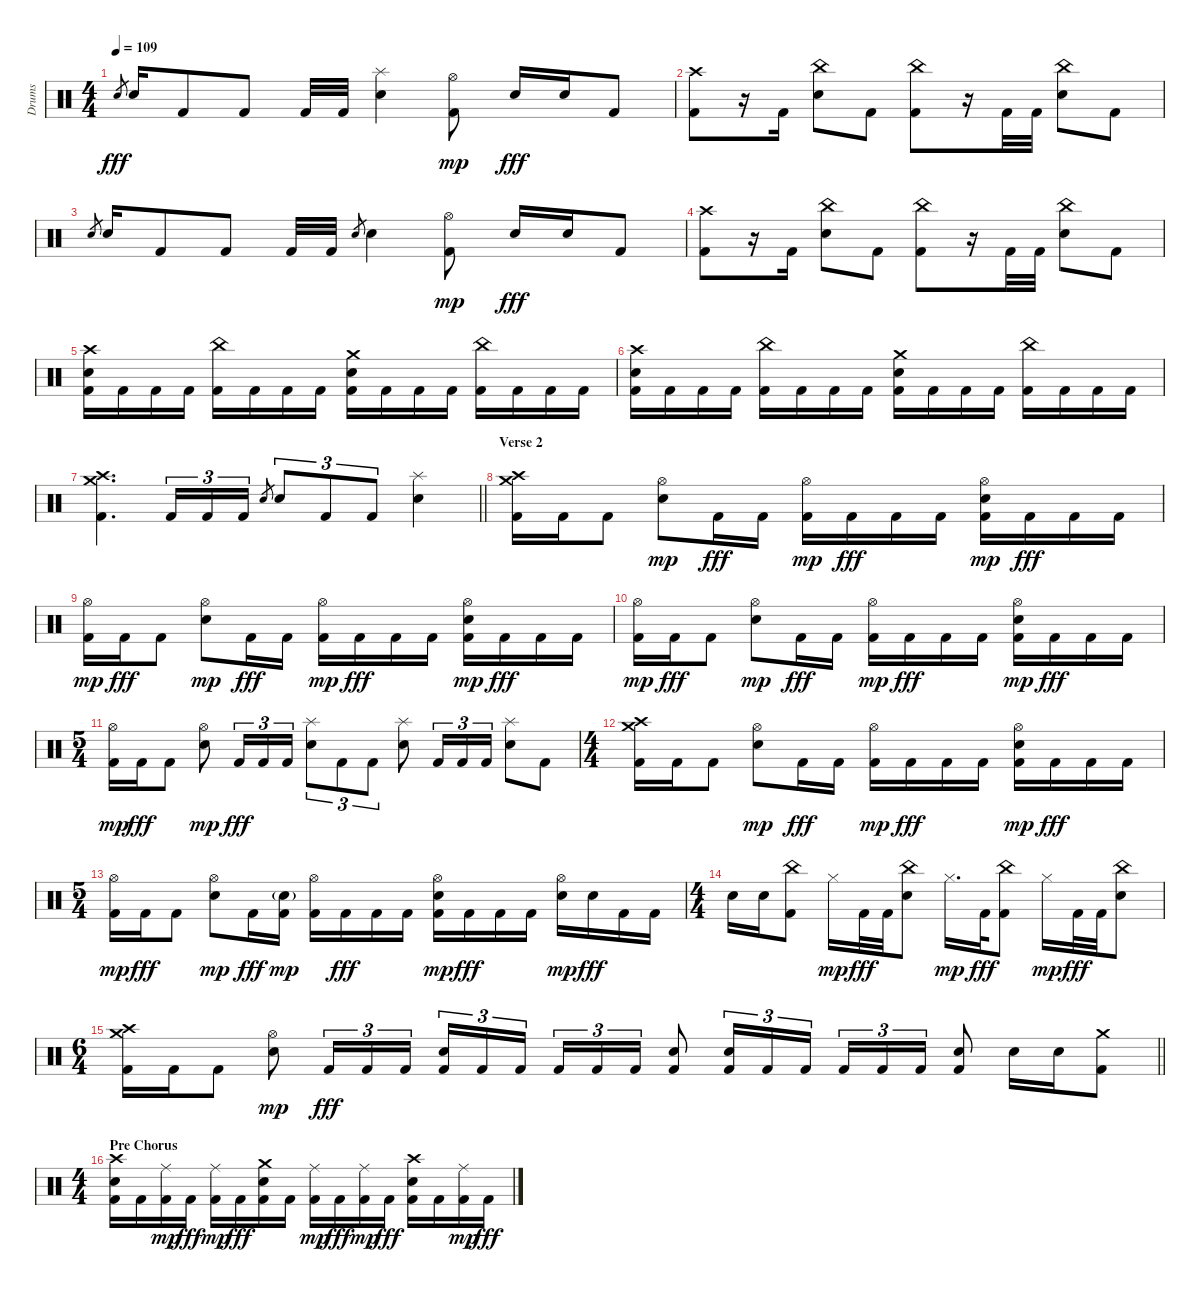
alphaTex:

\track ("Drums" "Drums") {instrument percussion}
\staff {score}
\articulation defaults
\ts (4 4)
\tempo 109
\clef neutral
\ks c "Electric Snare (hit)".8{gr dy fff} "Electric Snare (hit)".16 "Kick (hit) 2".8 "Kick (hit) 2".8 "Kick (hit) 2".32 "Kick (hit) 2".32
("Electric Snare (hit)" "Splash (hit)").4 ("Kick (hit) 2" "Hi-Hat (open)").8{dy mp} "Electric Snare (hit)".16{dy fff} "Electric Snare (hit)".16 "Kick (hit) 2".8 |
("Kick (hit) 2" "Crash high (hit)").8 r.16 "Kick (hit) 2".16 ("Electric Snare (hit)" "China (hit)").8 "Kick (hit) 2".8 ("Kick (hit) 2" "China (hit)").8 r.16 "Kick (hit) 2".32 "Kick (hit) 2".32 ("Electric Snare (hit)" "China (hit)").8 "Kick (hit) 2".8 |
"Electric Snare (hit)".8{gr} "Electric Snare (hit)".16 "Kick (hit) 2".8 "Kick (hit) 2".8 "Kick (hit) 2".32 "Kick (hit) 2".32 "Electric Snare (hit)".8{gr} "Electric Snare (hit)".4 ("Kick (hit) 2" "Hi-Hat (open)").8{dy mp} "Electric Snare (hit)".16{dy fff} "Electric Snare (hit)".16 "Kick (hit) 2".8 |
("Kick (hit) 2" "Crash high (hit)").8 r.16 "Kick (hit) 2".16 ("Electric Snare (hit)" "China (hit)").8 "Kick (hit) 2".8 ("Kick (hit) 2" "China (hit)").8 r.16 "Kick (hit) 2".32 "Kick (hit) 2".32 ("Electric Snare (hit)" "China (hit)").8 "Kick (hit) 2".8 |
("Kick (hit) 2" "Electric Snare (hit)" "Crash high (hit)").16 "Kick (hit) 2".16 "Kick (hit) 2".16 "Kick (hit) 2".16 ("Kick (hit) 2" "China (hit)").16 "Kick (hit) 2".16 "Kick (hit) 2".16 "Kick (hit) 2".16 ("Kick (hit) 2" "Electric Snare (hit)" "Crash medium (hit)").16 "Kick (hit) 2".16 "Kick (hit) 2".16 "Kick (hit) 2".16 ("Kick (hit) 2" "China (hit)").16 "Kick (hit) 2".16 "Kick (hit) 2".16 "Kick (hit) 2".16 |
("Kick (hit) 2" "Electric Snare (hit)" "Crash high (hit)").16 "Kick (hit) 2".16 "Kick (hit) 2".16 "Kick (hit) 2".16 ("Kick (hit) 2" "China (hit)").16 "Kick (hit) 2".16 "Kick (hit) 2".16 "Kick (hit) 2".16 ("Kick (hit) 2" "Electric Snare (hit)" "Crash medium (hit)").16 "Kick (hit) 2".16 "Kick (hit) 2".16 "Kick (hit) 2".16 ("Kick (hit) 2" "China (hit)").16 "Kick (hit) 2".16 "Kick (hit) 2".16 "Kick (hit) 2".16 |
\barLineRight lightlight
("Kick (hit) 2" "Crash medium (hit)" "Crash high (hit)").4{d} "Kick (hit) 2".16{tu (3 2)} "Kick (hit) 2".16{tu (3 2)} "Kick (hit) 2".16{tu (3 2)} "Electric Snare (hit)".8{gr} "Electric Snare (hit)".8{tu (3 2)} "Kick (hit) 2".8{tu (3 2)} "Kick (hit) 2".8{tu (3 2)} ("Electric Snare (hit)" "Splash (hit)").4 |
\section ("" "Verse 2")
("Kick (hit) 2" "Crash medium (hit)" "Crash high (hit)").16 "Kick (hit) 2".16 "Kick (hit) 2".8 ("Electric Snare (hit)" "Hi-Hat (open)").8{dy mp} "Kick (hit) 2".16{dy fff} "Kick (hit) 2".16 ("Kick (hit) 2" "Hi-Hat (open)").16{dy mp} "Kick (hit) 2".16{dy fff} "Kick (hit) 2".16 "Kick (hit) 2".16 ("Kick (hit) 2" "Electric Snare (hit)" "Hi-Hat (open)").16{dy mp} "Kick (hit) 2".16{dy fff} "Kick (hit) 2".16 "Kick (hit) 2".16 |
("Kick (hit) 2" "Hi-Hat (open)").16{dy mp} "Kick (hit) 2".16{dy fff} "Kick (hit) 2".8 ("Electric Snare (hit)" "Hi-Hat (open)").8{dy mp} "Kick (hit) 2".16{dy fff} "Kick (hit) 2".16 ("Kick (hit) 2" "Hi-Hat (open)").16{dy mp} "Kick (hit) 2".16{dy fff} "Kick (hit) 2".16 "Kick (hit) 2".16 ("Kick (hit) 2" "Electric Snare (hit)" "Hi-Hat (open)").16{dy mp} "Kick (hit) 2".16{dy fff} "Kick (hit) 2".16 "Kick (hit) 2".16 |
("Kick (hit) 2" "Hi-Hat (open)").16{dy mp} "Kick (hit) 2".16{dy fff} "Kick (hit) 2".8 ("Electric Snare (hit)" "Hi-Hat (open)").8{dy mp} "Kick (hit) 2".16{dy fff} "Kick (hit) 2".16 ("Kick (hit) 2" "Hi-Hat (open)").16{dy mp} "Kick (hit) 2".16{dy fff} "Kick (hit) 2".16 "Kick (hit) 2".16 ("Kick (hit) 2" "Electric Snare (hit)" "Hi-Hat (open)").16{dy mp} "Kick (hit) 2".16{dy fff} "Kick (hit) 2".16 "Kick (hit) 2".16 |
\ts (5 4)
("Kick (hit) 2" "Hi-Hat (open)").16{dy mp} "Kick (hit) 2".16{dy fff} "Kick (hit) 2".8 ("Electric Snare (hit)" "Hi-Hat (open)").8{dy mp} "Kick (hit) 2".16{tu (3 2) dy fff} "Kick (hit) 2".16{tu (3 2)} "Kick (hit) 2".16{tu (3 2)} ("Electric Snare (hit)" "Splash (hit)").8{tu (3 2)} "Kick (hit) 2".8{tu (3 2)} "Kick (hit) 2".8{tu (3 2)} ("Electric Snare (hit)" "Splash (hit)").8 "Kick (hit) 2".16{tu (3 2)} "Kick (hit) 2".16{tu (3 2)} "Kick (hit) 2".16{tu (3 2)} ("Electric Snare (hit)" "Splash (hit)").8 "Kick (hit) 2".8 |
\ts (4 4)
("Kick (hit) 2" "Crash medium (hit)" "Crash high (hit)").16 "Kick (hit) 2".16 "Kick (hit) 2".8 ("Electric Snare (hit)" "Hi-Hat (open)").8{dy mp} "Kick (hit) 2".16{dy fff} "Kick (hit) 2".16 ("Kick (hit) 2" "Hi-Hat (open)").16{dy mp} "Kick (hit) 2".16{dy fff} "Kick (hit) 2".16 "Kick (hit) 2".16 ("Kick (hit) 2" "Electric Snare (hit)" "Hi-Hat (open)").16{dy mp} "Kick (hit) 2".16{dy fff} "Kick (hit) 2".16 "Kick (hit) 2".16 |
\ts (5 4)
("Kick (hit) 2" "Hi-Hat (open)").16{dy mp} "Kick (hit) 2".16{dy fff} "Kick (hit) 2".8 ("Electric Snare (hit)" "Hi-Hat (open)").8{dy mp} "Kick (hit) 2".16{dy fff} ("Kick (hit) 2" "Electric Snare (hit)"{g}).16{dy mp} ("Kick (hit) 2" "Hi-Hat (open)").16 "Kick (hit) 2".16{dy fff} "Kick (hit) 2".16 "Kick (hit) 2".16 ("Kick (hit) 2" "Electric Snare (hit)" "Hi-Hat (open)").16{dy mp} "Kick (hit) 2".16{dy fff} "Kick (hit) 2".16 "Kick (hit) 2".16 ("Electric Snare (hit)" "Hi-Hat (open)").16{dy mp} "Electric Snare (hit)".16{dy fff} "Kick (hit) 2".16 "Kick (hit) 2".16 |
\ts (4 4)
"Electric Snare (hit)".16 "Electric Snare (hit)".16 ("Kick (hit) 2" "China (hit)").8 "Hi-Hat (closed)".16{dy mp} "Kick (hit) 2".32{dy fff} "Kick (hit) 2".32 ("Electric Snare (hit)" "China (hit)").8 "Hi-Hat (closed)".16{d dy mp} "Kick (hit) 2".32{dy fff} ("Kick (hit) 2" "China (hit)").8 "Hi-Hat (closed)".16{dy mp} "Kick (hit) 2".32{dy fff} "Kick (hit) 2".32 ("Electric Snare (hit)" "China (hit)").8 |
\ts (6 4)
\barLineRight lightlight
("Kick (hit) 2" "Crash medium (hit)" "Crash high (hit)").16 "Kick (hit) 2".16 "Kick (hit) 2".8 ("Electric Snare (hit)" "Hi-Hat (open)").8{dy mp} "Kick (hit) 2".16{tu (3 2) dy fff} "Kick (hit) 2".16{tu (3 2)} "Kick (hit) 2".16{tu (3 2) beam splitsecondary} ("Kick (hit) 2" "Electric Snare (hit)").16{tu (3 2)} "Kick (hit) 2".16{tu (3 2)} "Kick (hit) 2".16{tu (3 2) beam splitsecondary} "Kick (hit) 2".16{tu (3 2)} "Kick (hit) 2".16{tu (3 2)} "Kick (hit) 2".16{tu (3 2)} ("Kick (hit) 2" "Electric Snare (hit)").8 ("Kick (hit) 2" "Electric Snare (hit)").16{tu (3 2)} "Kick (hit) 2".16{tu (3 2)} "Kick (hit) 2".16{tu (3 2) beam splitsecondary} "Kick (hit) 2".16{tu (3 2)} "Kick (hit) 2".16{tu (3 2)} "Kick (hit) 2".16{tu (3 2)} ("Kick (hit) 2" "Electric Snare (hit)").8 "Electric Snare (hit)".16 "Electric Snare (hit)".16 ("Kick (hit) 2" "Crash medium (hit)").8 |
\ts (4 4)
\section ("" "Pre Chorus")
("Kick (hit) 2" "Electric Snare (hit)" "Crash high (hit)").16 "Kick (hit) 2".16 ("Kick (hit) 2" "Ride (middle)").16{dy mp} "Kick (hit) 2".16{dy fff} ("Kick (hit) 2" "Ride (middle)").16{dy mp} "Kick (hit) 2".16{dy fff} ("Kick (hit) 2" "Electric Snare (hit)" "Crash medium (hit)").16 "Kick (hit) 2".16 ("Kick (hit) 2" "Ride (middle)").16{dy mp} "Kick (hit) 2".16{dy fff} ("Kick (hit) 2" "Ride (middle)").16{dy mp} "Kick (hit) 2".16{dy fff} ("Kick (hit) 2" "Electric Snare (hit)" "Crash high (hit)").16 "Kick (hit) 2".16 ("Kick (hit) 2" "Ride (middle)").16{dy mp} "Kick (hit) 2".16{dy fff}
